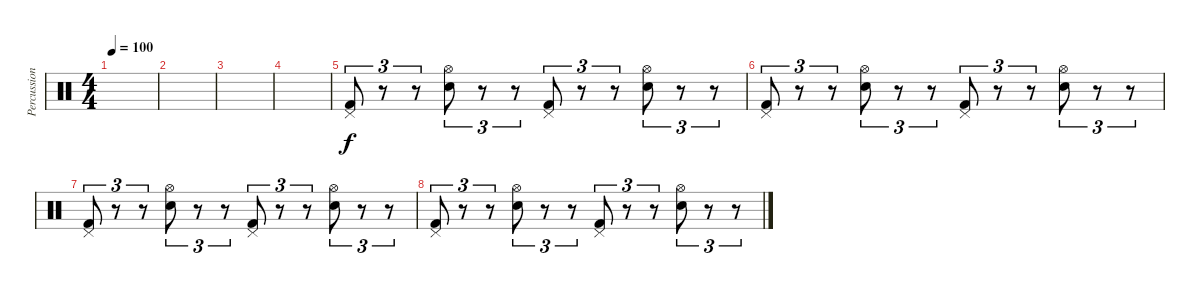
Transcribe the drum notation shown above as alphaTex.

\track ("Percussions" "Percussion") {instrument percussion}
\staff {score}
\articulation defaults
\ts (4 4)
\tempo 100
\clef neutral
\ks c
|
|
|
|
("Pedal Hi-Hat (hit)" "Kick (hit) 2").8{tu (3 2)} r.8{tu (3 2)} r.8{tu (3 2)} ("Hi-Hat (open)" "Electric Snare (hit)").8{tu (3 2)} r.8{tu (3 2)} r.8{tu (3 2)} ("Pedal Hi-Hat (hit)" "Kick (hit) 2").8{tu (3 2)} r.8{tu (3 2)} r.8{tu (3 2)} ("Hi-Hat (open)" "Electric Snare (hit)").8{tu (3 2)} r.8{tu (3 2)} r.8{tu (3 2)} |
("Pedal Hi-Hat (hit)" "Kick (hit) 2").8{tu (3 2)} r.8{tu (3 2)} r.8{tu (3 2)} ("Hi-Hat (open)" "Electric Snare (hit)").8{tu (3 2)} r.8{tu (3 2)} r.8{tu (3 2)} ("Pedal Hi-Hat (hit)" "Kick (hit) 2").8{tu (3 2)} r.8{tu (3 2)} r.8{tu (3 2)} ("Hi-Hat (open)" "Electric Snare (hit)").8{tu (3 2)} r.8{tu (3 2)} r.8{tu (3 2)} |
("Pedal Hi-Hat (hit)" "Kick (hit) 2").8{tu (3 2)} r.8{tu (3 2)} r.8{tu (3 2)} ("Hi-Hat (open)" "Electric Snare (hit)").8{tu (3 2)} r.8{tu (3 2)} r.8{tu (3 2)} ("Pedal Hi-Hat (hit)" "Kick (hit) 2").8{tu (3 2)} r.8{tu (3 2)} r.8{tu (3 2)} ("Hi-Hat (open)" "Electric Snare (hit)").8{tu (3 2)} r.8{tu (3 2)} r.8{tu (3 2)} |
("Pedal Hi-Hat (hit)" "Kick (hit) 2").8{tu (3 2)} r.8{tu (3 2)} r.8{tu (3 2)} ("Hi-Hat (open)" "Electric Snare (hit)").8{tu (3 2)} r.8{tu (3 2)} r.8{tu (3 2)} ("Pedal Hi-Hat (hit)" "Kick (hit) 2").8{tu (3 2)} r.8{tu (3 2)} r.8{tu (3 2)} ("Hi-Hat (open)" "Electric Snare (hit)").8{tu (3 2)} r.8{tu (3 2)} r.8{tu (3 2)}
